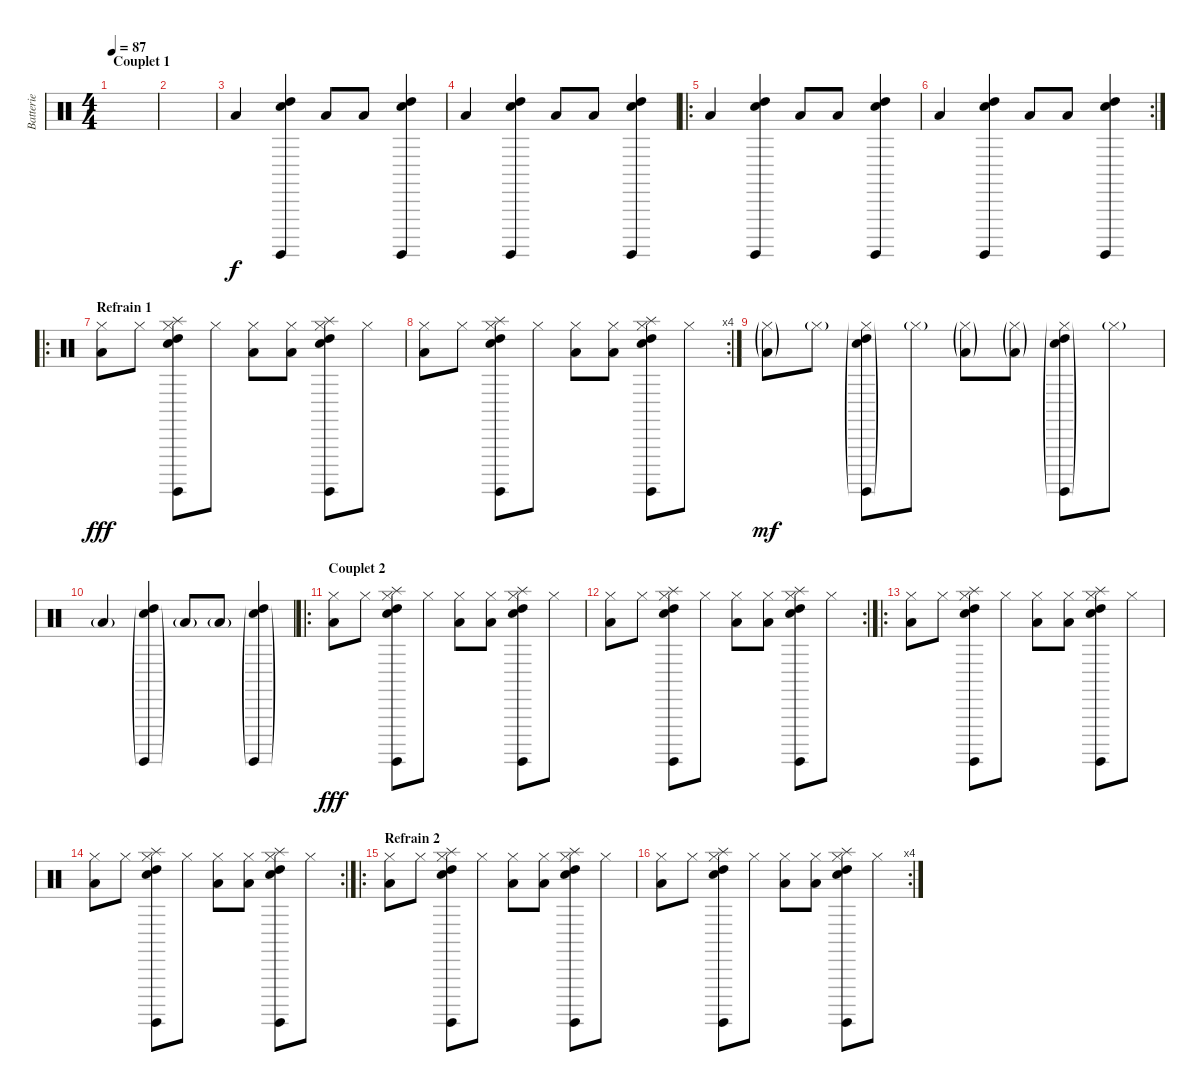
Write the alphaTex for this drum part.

\track ("Batterie" "Batterie") {instrument percussion}
\staff {score}
\articulation defaults
\ts (4 4)
\section ("" "Couplet 1")
\tempo 87
\clef neutral
\ks c
|
|
"Low Floor Tom (hit)".4 ("Snare (hit) 2" "High Tom (hit)" "Surdo (hit)").4 "Low Floor Tom (hit)".8 "Low Floor Tom (hit)".8 ("Snare (hit) 2" "High Tom (hit)" "Surdo (hit)").4 |
"Low Floor Tom (hit)".4 ("Snare (hit) 2" "High Tom (hit)" "Surdo (hit)").4 "Low Floor Tom (hit)".8 "Low Floor Tom (hit)".8 ("Snare (hit) 2" "High Tom (hit)" "Surdo (hit)").4 |
\ro "Low Floor Tom (hit)".4
("Snare (hit) 2" "High Tom (hit)" "Surdo (hit)").4 "Low Floor Tom (hit)".8 "Low Floor Tom (hit)".8 ("Snare (hit) 2" "High Tom (hit)" "Surdo (hit)").4 |
\rc 2 "Low Floor Tom (hit)".4
("Snare (hit) 2" "High Tom (hit)" "Surdo (hit)").4 "Low Floor Tom (hit)".8 "Low Floor Tom (hit)".8 ("Snare (hit) 2" "High Tom (hit)" "Surdo (hit)").4 |
\ro
\section ("" "Refrain 1")
("Hi-Hat (closed)" "Low Floor Tom (hit)").8{dy fff} "Hi-Hat (closed)".8 ("Hi-Hat (closed)" "Snare (hit) 2" "High Tom (hit)" "Surdo (hit)" "Splash (hit)").8 "Hi-Hat (closed)".8 ("Hi-Hat (closed)" "Low Floor Tom (hit)").8 ("Hi-Hat (closed)" "Low Floor Tom (hit)").8 ("Hi-Hat (closed)" "Snare (hit) 2" "High Tom (hit)" "Surdo (hit)" "Splash (hit)").8 "Hi-Hat (closed)".8 |
\rc 4
("Hi-Hat (closed)" "Low Floor Tom (hit)").8 "Hi-Hat (closed)".8 ("Hi-Hat (closed)" "Snare (hit) 2" "High Tom (hit)" "Surdo (hit)" "Splash (hit)").8 "Hi-Hat (closed)".8 ("Hi-Hat (closed)" "Low Floor Tom (hit)").8 ("Hi-Hat (closed)" "Low Floor Tom (hit)").8 ("Hi-Hat (closed)" "Snare (hit) 2" "High Tom (hit)" "Surdo (hit)" "Splash (hit)").8 "Hi-Hat (closed)".8 |
("Hi-Hat (closed)"{g} "Low Floor Tom (hit)"{g}).8{dy mf} "Hi-Hat (closed)"{g}.8 ("Hi-Hat (closed)"{g} "Snare (hit) 2"{g} "High Tom (hit)"{g} "Surdo (hit)"{g}).8 "Hi-Hat (closed)"{g}.8 ("Hi-Hat (closed)"{g} "Low Floor Tom (hit)"{g}).8 ("Hi-Hat (closed)"{g} "Low Floor Tom (hit)"{g}).8 ("Hi-Hat (closed)"{g} "Snare (hit) 2"{g} "High Tom (hit)"{g} "Surdo (hit)"{g}).8 "Hi-Hat (closed)"{g}.8 |
"Low Floor Tom (hit)"{g}.4 ("Snare (hit) 2"{g} "High Tom (hit)"{g} "Surdo (hit)"{g}).4 "Low Floor Tom (hit)"{g}.8 "Low Floor Tom (hit)"{g}.8 ("Snare (hit) 2"{g} "High Tom (hit)"{g} "Surdo (hit)"{g}).4 |
\ro
\section ("" "Couplet 2")
("Hi-Hat (closed)" "Low Floor Tom (hit)").8{dy fff} "Hi-Hat (closed)".8 ("Hi-Hat (closed)" "Snare (hit) 2" "High Tom (hit)" "Surdo (hit)" "Splash (hit)").8 "Hi-Hat (closed)".8 ("Hi-Hat (closed)" "Low Floor Tom (hit)").8 ("Hi-Hat (closed)" "Low Floor Tom (hit)").8 ("Hi-Hat (closed)" "Snare (hit) 2" "High Tom (hit)" "Surdo (hit)" "Splash (hit)").8 "Hi-Hat (closed)".8 |
\rc 2
("Hi-Hat (closed)" "Low Floor Tom (hit)").8 "Hi-Hat (closed)".8 ("Hi-Hat (closed)" "Snare (hit) 2" "High Tom (hit)" "Surdo (hit)" "Splash (hit)").8 "Hi-Hat (closed)".8 ("Hi-Hat (closed)" "Low Floor Tom (hit)").8 ("Hi-Hat (closed)" "Low Floor Tom (hit)").8 ("Hi-Hat (closed)" "Snare (hit) 2" "High Tom (hit)" "Surdo (hit)" "Splash (hit)").8 "Hi-Hat (closed)".8 |
\ro
("Hi-Hat (closed)" "Low Floor Tom (hit)").8 "Hi-Hat (closed)".8 ("Hi-Hat (closed)" "Snare (hit) 2" "High Tom (hit)" "Surdo (hit)" "Splash (hit)").8 "Hi-Hat (closed)".8 ("Hi-Hat (closed)" "Low Floor Tom (hit)").8 ("Hi-Hat (closed)" "Low Floor Tom (hit)").8 ("Hi-Hat (closed)" "Snare (hit) 2" "High Tom (hit)" "Surdo (hit)" "Splash (hit)").8 "Hi-Hat (closed)".8 |
\rc 2
("Hi-Hat (closed)" "Low Floor Tom (hit)").8 "Hi-Hat (closed)".8 ("Hi-Hat (closed)" "Snare (hit) 2" "High Tom (hit)" "Surdo (hit)" "Splash (hit)").8 "Hi-Hat (closed)".8 ("Hi-Hat (closed)" "Low Floor Tom (hit)").8 ("Hi-Hat (closed)" "Low Floor Tom (hit)").8 ("Hi-Hat (closed)" "Snare (hit) 2" "High Tom (hit)" "Surdo (hit)" "Splash (hit)").8 "Hi-Hat (closed)".8 |
\ro
\section ("" "Refrain 2")
("Hi-Hat (closed)" "Low Floor Tom (hit)").8 "Hi-Hat (closed)".8 ("Hi-Hat (closed)" "Snare (hit) 2" "High Tom (hit)" "Surdo (hit)" "Splash (hit)").8 "Hi-Hat (closed)".8 ("Hi-Hat (closed)" "Low Floor Tom (hit)").8 ("Hi-Hat (closed)" "Low Floor Tom (hit)").8 ("Hi-Hat (closed)" "Snare (hit) 2" "High Tom (hit)" "Surdo (hit)" "Splash (hit)").8 "Hi-Hat (closed)".8 |
\rc 4
("Hi-Hat (closed)" "Low Floor Tom (hit)").8 "Hi-Hat (closed)".8 ("Hi-Hat (closed)" "Snare (hit) 2" "High Tom (hit)" "Surdo (hit)" "Splash (hit)").8 "Hi-Hat (closed)".8 ("Hi-Hat (closed)" "Low Floor Tom (hit)").8 ("Hi-Hat (closed)" "Low Floor Tom (hit)").8 ("Hi-Hat (closed)" "Snare (hit) 2" "High Tom (hit)" "Surdo (hit)" "Splash (hit)").8 "Hi-Hat (closed)".8
